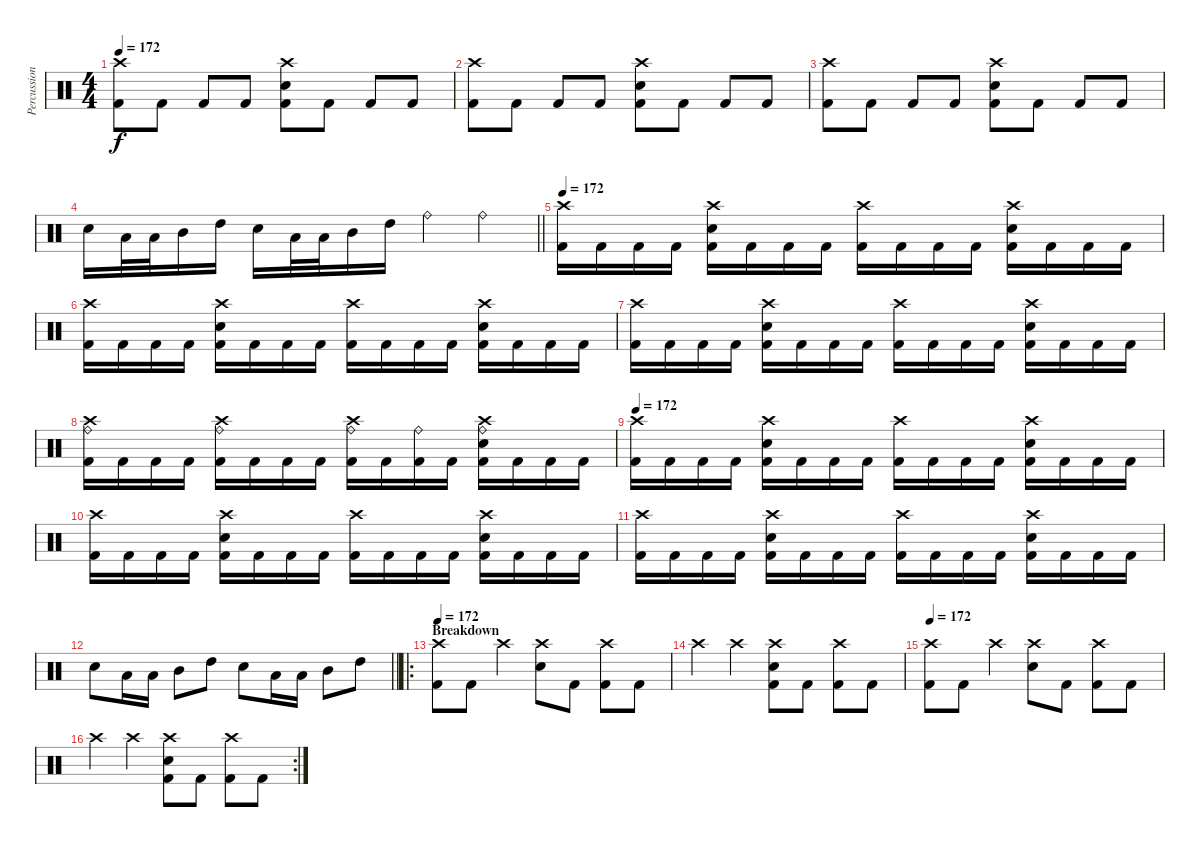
\track ("Percussions" "Percussion") {instrument percussion}
\staff {score}
\articulation defaults
\ts (4 4)
\tempo 172
\clef neutral
\ks c
("Crash high (hit)" "Kick (hit) 2").8{dy f} "Kick (hit) 2".8 "Kick (hit) 2".8 "Kick (hit) 2".8 ("Crash high (hit)" "Electric Snare (hit)" "Kick (hit) 2").8 "Kick (hit) 2".8 "Kick (hit) 2".8 "Kick (hit) 2".8 |
("Crash high (hit)" "Kick (hit) 2").8 "Kick (hit) 2".8 "Kick (hit) 2".8 "Kick (hit) 2".8 ("Crash high (hit)" "Electric Snare (hit)" "Kick (hit) 2").8 "Kick (hit) 2".8 "Kick (hit) 2".8 "Kick (hit) 2".8 |
("Crash high (hit)" "Kick (hit) 2").8 "Kick (hit) 2".8 "Kick (hit) 2".8 "Kick (hit) 2".8 ("Crash high (hit)" "Electric Snare (hit)" "Kick (hit) 2").8 "Kick (hit) 2".8 "Kick (hit) 2".8 "Kick (hit) 2".8 |
\barLineRight lightlight "Electric Snare (hit)".16 "Low Tom (hit)".32 "Low Tom (hit)".32 "Mid Tom (hit)".16 "High Tom (hit)".16 "Electric Snare (hit)".16 "Low Tom (hit)".32 "Low Tom (hit)".32 "Mid Tom (hit)".16 "High Tom (hit)".16 "Ride (bell)".4 "Ride (bell)".4
|
\section ("" "")
\tempo 172
("Crash high (hit)" "Kick (hit) 2").16 "Kick (hit) 2".16 "Kick (hit) 2".16 "Kick (hit) 2".16 ("Crash high (hit)" "Electric Snare (hit)" "Kick (hit) 2").16 "Kick (hit) 2".16 "Kick (hit) 2".16 "Kick (hit) 2".16 ("Crash high (hit)" "Kick (hit) 2").16 "Kick (hit) 2".16 "Kick (hit) 2".16 "Kick (hit) 2".16 ("Crash high (hit)" "Electric Snare (hit)" "Kick (hit) 2").16 "Kick (hit) 2".16 "Kick (hit) 2".16 "Kick (hit) 2".16 |
("Crash high (hit)" "Kick (hit) 2").16 "Kick (hit) 2".16 "Kick (hit) 2".16 "Kick (hit) 2".16 ("Crash high (hit)" "Electric Snare (hit)" "Kick (hit) 2").16 "Kick (hit) 2".16 "Kick (hit) 2".16 "Kick (hit) 2".16 ("Crash high (hit)" "Kick (hit) 2").16 "Kick (hit) 2".16 "Kick (hit) 2".16 "Kick (hit) 2".16 ("Crash high (hit)" "Electric Snare (hit)" "Kick (hit) 2").16 "Kick (hit) 2".16 "Kick (hit) 2".16 "Kick (hit) 2".16 |
("Crash high (hit)" "Kick (hit) 2").16 "Kick (hit) 2".16 "Kick (hit) 2".16 "Kick (hit) 2".16 ("Crash high (hit)" "Electric Snare (hit)" "Kick (hit) 2").16 "Kick (hit) 2".16 "Kick (hit) 2".16 "Kick (hit) 2".16 ("Crash high (hit)" "Kick (hit) 2").16 "Kick (hit) 2".16 "Kick (hit) 2".16 "Kick (hit) 2".16 ("Crash high (hit)" "Electric Snare (hit)" "Kick (hit) 2").16 "Kick (hit) 2".16 "Kick (hit) 2".16 "Kick (hit) 2".16 |
("Crash high (hit)" "Ride (bell)" "Kick (hit) 2").16 "Kick (hit) 2".16 "Kick (hit) 2".16 "Kick (hit) 2".16 ("Crash high (hit)" "Ride (bell)" "Kick (hit) 2").16 "Kick (hit) 2".16 "Kick (hit) 2".16 "Kick (hit) 2".16 ("Crash high (hit)" "Ride (bell)" "Kick (hit) 2").16 "Kick (hit) 2".16 ("Ride (bell)" "Kick (hit) 2").16 "Kick (hit) 2".16 ("Crash high (hit)" "Ride (bell)" "Electric Snare (hit)" "Kick (hit) 2").16 "Kick (hit) 2".16 "Kick (hit) 2".16 "Kick (hit) 2".16 |
\tempo 172
("Crash high (hit)" "Kick (hit) 2").16 "Kick (hit) 2".16 "Kick (hit) 2".16 "Kick (hit) 2".16 ("Crash high (hit)" "Electric Snare (hit)" "Kick (hit) 2").16 "Kick (hit) 2".16 "Kick (hit) 2".16 "Kick (hit) 2".16 ("Crash high (hit)" "Kick (hit) 2").16 "Kick (hit) 2".16 "Kick (hit) 2".16 "Kick (hit) 2".16 ("Crash high (hit)" "Electric Snare (hit)" "Kick (hit) 2").16 "Kick (hit) 2".16 "Kick (hit) 2".16 "Kick (hit) 2".16 |
("Crash high (hit)" "Kick (hit) 2").16 "Kick (hit) 2".16 "Kick (hit) 2".16 "Kick (hit) 2".16 ("Crash high (hit)" "Electric Snare (hit)" "Kick (hit) 2").16 "Kick (hit) 2".16 "Kick (hit) 2".16 "Kick (hit) 2".16 ("Crash high (hit)" "Kick (hit) 2").16 "Kick (hit) 2".16 "Kick (hit) 2".16 "Kick (hit) 2".16 ("Crash high (hit)" "Electric Snare (hit)" "Kick (hit) 2").16 "Kick (hit) 2".16 "Kick (hit) 2".16 "Kick (hit) 2".16 |
("Crash high (hit)" "Kick (hit) 2").16 "Kick (hit) 2".16 "Kick (hit) 2".16 "Kick (hit) 2".16 ("Crash high (hit)" "Electric Snare (hit)" "Kick (hit) 2").16 "Kick (hit) 2".16 "Kick (hit) 2".16 "Kick (hit) 2".16 ("Crash high (hit)" "Kick (hit) 2").16 "Kick (hit) 2".16 "Kick (hit) 2".16 "Kick (hit) 2".16 ("Crash high (hit)" "Electric Snare (hit)" "Kick (hit) 2").16 "Kick (hit) 2".16 "Kick (hit) 2".16 "Kick (hit) 2".16 |
\barLineRight lightlight "Electric Snare (hit)".8 "Low Tom (hit)".16 "Low Tom (hit)".16 "Mid Tom (hit)".8 "High Tom (hit)".8 "Electric Snare (hit)".8 "Low Tom (hit)".16 "Low Tom (hit)".16 "Mid Tom (hit)".8 "High Tom (hit)".8
|
\ro
\section ("" "Breakdown")
\tempo 172
("Crash high (hit)" "Kick (hit) 2").8 "Kick (hit) 2".8 "Crash high (hit)".4 ("Crash high (hit)" "Electric Snare (hit)").8 "Kick (hit) 2".8 ("Crash high (hit)" "Kick (hit) 2").8 "Kick (hit) 2".8 |
"Crash high (hit)".4 "Crash high (hit)".4 ("Crash high (hit)" "Electric Snare (hit)" "Kick (hit) 2").8 "Kick (hit) 2".8 ("Crash high (hit)" "Kick (hit) 2").8 "Kick (hit) 2".8 |
\tempo 172
("Crash high (hit)" "Kick (hit) 2").8 "Kick (hit) 2".8 "Crash high (hit)".4 ("Crash high (hit)" "Electric Snare (hit)").8 "Kick (hit) 2".8 ("Crash high (hit)" "Kick (hit) 2").8 "Kick (hit) 2".8 |
\rc 2 "Crash high (hit)".4 "Crash high (hit)".4
("Crash high (hit)" "Electric Snare (hit)" "Kick (hit) 2").8 "Kick (hit) 2".8 ("Crash high (hit)" "Kick (hit) 2").8 "Kick (hit) 2".8
